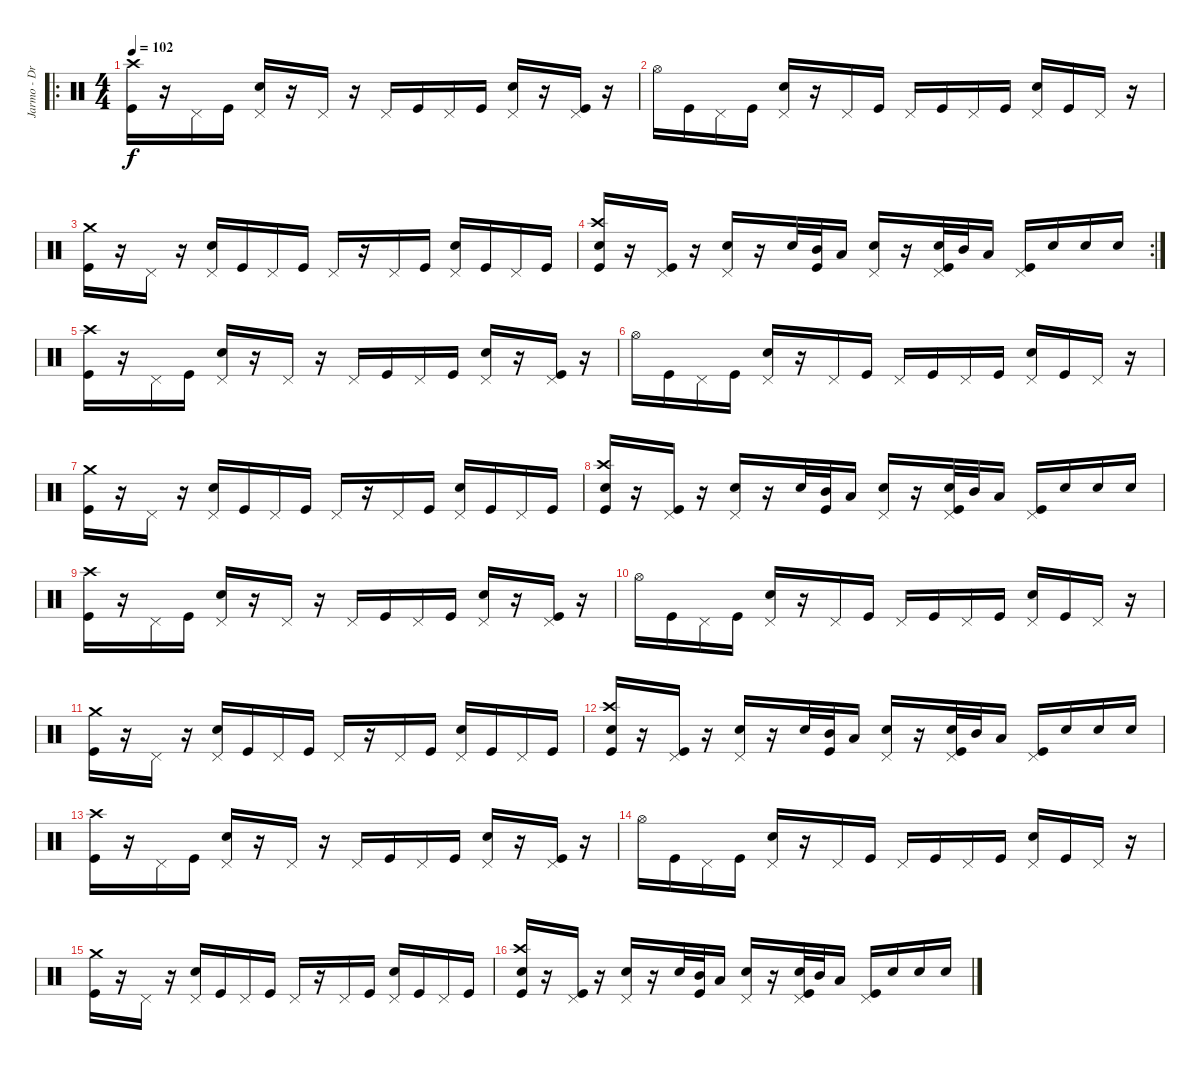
\track ("Jarmo - Drums" "Jarmo - Dr") {instrument percussion}
\staff {score}
\articulation defaults
\ro
\ts (4 4)
\tempo 102
\clef neutral
\ks c
("Kick (hit)" "Crash high (hit)").16{dy f} r.16 "Pedal Hi-Hat (hit)".16 "Kick (hit)".16 ("Electric Snare (hit)" "Pedal Hi-Hat (hit)").16 r.16 "Pedal Hi-Hat (hit)".16 r.16 "Pedal Hi-Hat (hit)".16 "Kick (hit)".16 "Pedal Hi-Hat (hit)".16 "Kick (hit)".16 ("Electric Snare (hit)" "Pedal Hi-Hat (hit)").16 r.16 ("Kick (hit)" "Pedal Hi-Hat (hit)").16 r.16 |
"Hi-Hat (open)".16 "Kick (hit)".16 "Pedal Hi-Hat (hit)".16 "Kick (hit)".16 ("Electric Snare (hit)" "Pedal Hi-Hat (hit)").16 r.16 "Pedal Hi-Hat (hit)".16 "Kick (hit)".16 "Pedal Hi-Hat (hit)".16 "Kick (hit)".16 "Pedal Hi-Hat (hit)".16 "Kick (hit)".16 ("Electric Snare (hit)" "Pedal Hi-Hat (hit)").16 "Kick (hit)".16 "Pedal Hi-Hat (hit)".16 r.16 |
("Kick (hit)" "Crash medium (hit)").16 r.16 "Pedal Hi-Hat (hit)".16 r.16 ("Electric Snare (hit)" "Pedal Hi-Hat (hit)").16 "Kick (hit)".16 "Pedal Hi-Hat (hit)".16 "Kick (hit)".16 "Pedal Hi-Hat (hit)".16 r.16 "Pedal Hi-Hat (hit)".16 "Kick (hit)".16 ("Electric Snare (hit)" "Pedal Hi-Hat (hit)").16 "Kick (hit)".16 "Pedal Hi-Hat (hit)".16 "Kick (hit)".16 |
\rc 2
("Kick (hit)" "Electric Snare (hit)" "Crash high (hit)").16 r.16 ("Kick (hit)" "Pedal Hi-Hat (hit)").16 r.16 ("Electric Snare (hit)" "Pedal Hi-Hat (hit)").16 r.16 "Electric Snare (hit)".32 ("Kick (hit)" "Mid Tom (hit)").32 "Low Tom (hit)".16 ("Electric Snare (hit)" "Pedal Hi-Hat (hit)").16 r.16 ("Kick (hit)" "Electric Snare (hit)" "Pedal Hi-Hat (hit)").32 "Mid Tom (hit)".32 "Low Tom (hit)".16 ("Kick (hit)" "Pedal Hi-Hat (hit)").16 "Electric Snare (hit)".16 "Electric Snare (hit)".16 "Electric Snare (hit)".16 |
("Kick (hit)" "Crash high (hit)").16 r.16 "Pedal Hi-Hat (hit)".16 "Kick (hit)".16 ("Electric Snare (hit)" "Pedal Hi-Hat (hit)").16 r.16 "Pedal Hi-Hat (hit)".16 r.16 "Pedal Hi-Hat (hit)".16 "Kick (hit)".16 "Pedal Hi-Hat (hit)".16 "Kick (hit)".16 ("Electric Snare (hit)" "Pedal Hi-Hat (hit)").16 r.16 ("Kick (hit)" "Pedal Hi-Hat (hit)").16 r.16 |
"Hi-Hat (open)".16 "Kick (hit)".16 "Pedal Hi-Hat (hit)".16 "Kick (hit)".16 ("Electric Snare (hit)" "Pedal Hi-Hat (hit)").16 r.16 "Pedal Hi-Hat (hit)".16 "Kick (hit)".16 "Pedal Hi-Hat (hit)".16 "Kick (hit)".16 "Pedal Hi-Hat (hit)".16 "Kick (hit)".16 ("Electric Snare (hit)" "Pedal Hi-Hat (hit)").16 "Kick (hit)".16 "Pedal Hi-Hat (hit)".16 r.16 |
("Kick (hit)" "Crash medium (hit)").16 r.16 "Pedal Hi-Hat (hit)".16 r.16 ("Electric Snare (hit)" "Pedal Hi-Hat (hit)").16 "Kick (hit)".16 "Pedal Hi-Hat (hit)".16 "Kick (hit)".16 "Pedal Hi-Hat (hit)".16 r.16 "Pedal Hi-Hat (hit)".16 "Kick (hit)".16 ("Electric Snare (hit)" "Pedal Hi-Hat (hit)").16 "Kick (hit)".16 "Pedal Hi-Hat (hit)".16 "Kick (hit)".16 |
("Kick (hit)" "Electric Snare (hit)" "Crash high (hit)").16 r.16 ("Kick (hit)" "Pedal Hi-Hat (hit)").16 r.16 ("Electric Snare (hit)" "Pedal Hi-Hat (hit)").16 r.16 "Electric Snare (hit)".32 ("Kick (hit)" "Mid Tom (hit)").32 "Low Tom (hit)".16 ("Electric Snare (hit)" "Pedal Hi-Hat (hit)").16 r.16 ("Kick (hit)" "Electric Snare (hit)" "Pedal Hi-Hat (hit)").32 "Mid Tom (hit)".32 "Low Tom (hit)".16 ("Kick (hit)" "Pedal Hi-Hat (hit)").16 "Electric Snare (hit)".16 "Electric Snare (hit)".16 "Electric Snare (hit)".16 |
("Kick (hit)" "Crash high (hit)").16 r.16 "Pedal Hi-Hat (hit)".16 "Kick (hit)".16 ("Electric Snare (hit)" "Pedal Hi-Hat (hit)").16 r.16 "Pedal Hi-Hat (hit)".16 r.16 "Pedal Hi-Hat (hit)".16 "Kick (hit)".16 "Pedal Hi-Hat (hit)".16 "Kick (hit)".16 ("Electric Snare (hit)" "Pedal Hi-Hat (hit)").16 r.16 ("Kick (hit)" "Pedal Hi-Hat (hit)").16 r.16 |
"Hi-Hat (open)".16 "Kick (hit)".16 "Pedal Hi-Hat (hit)".16 "Kick (hit)".16 ("Electric Snare (hit)" "Pedal Hi-Hat (hit)").16 r.16 "Pedal Hi-Hat (hit)".16 "Kick (hit)".16 "Pedal Hi-Hat (hit)".16 "Kick (hit)".16 "Pedal Hi-Hat (hit)".16 "Kick (hit)".16 ("Electric Snare (hit)" "Pedal Hi-Hat (hit)").16 "Kick (hit)".16 "Pedal Hi-Hat (hit)".16 r.16 |
("Kick (hit)" "Crash medium (hit)").16 r.16 "Pedal Hi-Hat (hit)".16 r.16 ("Electric Snare (hit)" "Pedal Hi-Hat (hit)").16 "Kick (hit)".16 "Pedal Hi-Hat (hit)".16 "Kick (hit)".16 "Pedal Hi-Hat (hit)".16 r.16 "Pedal Hi-Hat (hit)".16 "Kick (hit)".16 ("Electric Snare (hit)" "Pedal Hi-Hat (hit)").16 "Kick (hit)".16 "Pedal Hi-Hat (hit)".16 "Kick (hit)".16 |
("Kick (hit)" "Electric Snare (hit)" "Crash high (hit)").16 r.16 ("Kick (hit)" "Pedal Hi-Hat (hit)").16 r.16 ("Electric Snare (hit)" "Pedal Hi-Hat (hit)").16 r.16 "Electric Snare (hit)".32 ("Kick (hit)" "Mid Tom (hit)").32 "Low Tom (hit)".16 ("Electric Snare (hit)" "Pedal Hi-Hat (hit)").16 r.16 ("Kick (hit)" "Electric Snare (hit)" "Pedal Hi-Hat (hit)").32 "Mid Tom (hit)".32 "Low Tom (hit)".16 ("Kick (hit)" "Pedal Hi-Hat (hit)").16 "Electric Snare (hit)".16 "Electric Snare (hit)".16 "Electric Snare (hit)".16 |
("Kick (hit)" "Crash high (hit)").16 r.16 "Pedal Hi-Hat (hit)".16 "Kick (hit)".16 ("Electric Snare (hit)" "Pedal Hi-Hat (hit)").16 r.16 "Pedal Hi-Hat (hit)".16 r.16 "Pedal Hi-Hat (hit)".16 "Kick (hit)".16 "Pedal Hi-Hat (hit)".16 "Kick (hit)".16 ("Electric Snare (hit)" "Pedal Hi-Hat (hit)").16 r.16 ("Kick (hit)" "Pedal Hi-Hat (hit)").16 r.16 |
"Hi-Hat (open)".16 "Kick (hit)".16 "Pedal Hi-Hat (hit)".16 "Kick (hit)".16 ("Electric Snare (hit)" "Pedal Hi-Hat (hit)").16 r.16 "Pedal Hi-Hat (hit)".16 "Kick (hit)".16 "Pedal Hi-Hat (hit)".16 "Kick (hit)".16 "Pedal Hi-Hat (hit)".16 "Kick (hit)".16 ("Electric Snare (hit)" "Pedal Hi-Hat (hit)").16 "Kick (hit)".16 "Pedal Hi-Hat (hit)".16 r.16 |
("Kick (hit)" "Crash medium (hit)").16 r.16 "Pedal Hi-Hat (hit)".16 r.16 ("Electric Snare (hit)" "Pedal Hi-Hat (hit)").16 "Kick (hit)".16 "Pedal Hi-Hat (hit)".16 "Kick (hit)".16 "Pedal Hi-Hat (hit)".16 r.16 "Pedal Hi-Hat (hit)".16 "Kick (hit)".16 ("Electric Snare (hit)" "Pedal Hi-Hat (hit)").16 "Kick (hit)".16 "Pedal Hi-Hat (hit)".16 "Kick (hit)".16 |
("Kick (hit)" "Electric Snare (hit)" "Crash high (hit)").16 r.16 ("Kick (hit)" "Pedal Hi-Hat (hit)").16 r.16 ("Electric Snare (hit)" "Pedal Hi-Hat (hit)").16 r.16 "Electric Snare (hit)".32 ("Kick (hit)" "Mid Tom (hit)").32 "Low Tom (hit)".16 ("Electric Snare (hit)" "Pedal Hi-Hat (hit)").16 r.16 ("Kick (hit)" "Electric Snare (hit)" "Pedal Hi-Hat (hit)").32 "Mid Tom (hit)".32 "Low Tom (hit)".16 ("Kick (hit)" "Pedal Hi-Hat (hit)").16 "Electric Snare (hit)".16 "Electric Snare (hit)".16 "Electric Snare (hit)".16
